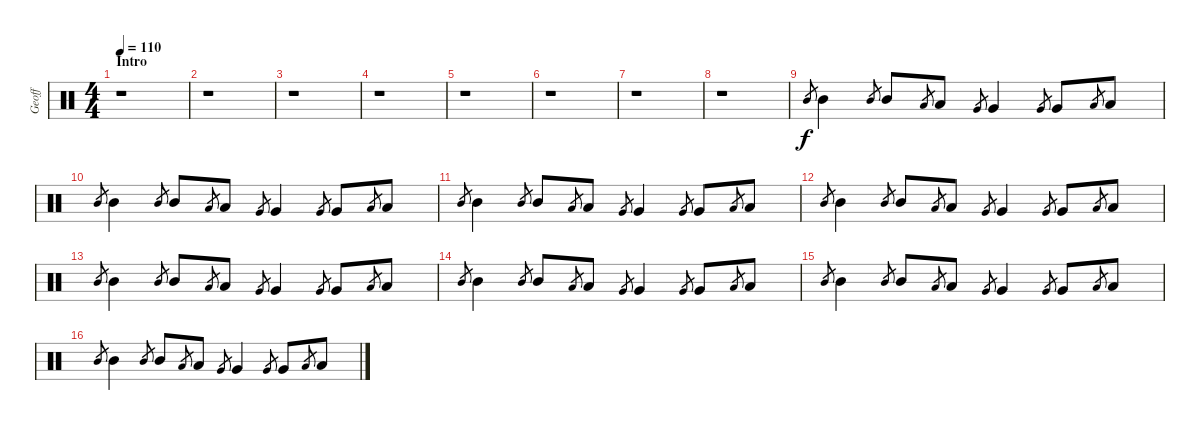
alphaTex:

\track ("Geoff" "Geoff") {instrument percussion}
\staff {score}
\articulation defaults
\ts (4 4)
\section ("" "Intro")
\tempo 110
\clef neutral
\ks c
r.1{dy f} |
r.1 |
r.1 |
r.1 |
r.1 |
r.1 |
r.1 |
r.1 |
"Mid Tom (hit)".8{gr} "Mid Tom (hit)".4 "Mid Tom (hit)".8{gr} "Mid Tom (hit)".8 "Low Tom (hit)".8{gr} "Low Tom (hit)".8 "Very Low Tom (hit)".8{gr} "Very Low Tom (hit)".4 "Very Low Tom (hit)".8{gr} "Very Low Tom (hit)".8 "Low Tom (hit)".8{gr} "Low Tom (hit)".8 |
"Mid Tom (hit)".8{gr} "Mid Tom (hit)".4 "Mid Tom (hit)".8{gr} "Mid Tom (hit)".8 "Low Tom (hit)".8{gr} "Low Tom (hit)".8 "Very Low Tom (hit)".8{gr} "Very Low Tom (hit)".4 "Very Low Tom (hit)".8{gr} "Very Low Tom (hit)".8 "Low Tom (hit)".8{gr} "Low Tom (hit)".8 |
"Mid Tom (hit)".8{gr} "Mid Tom (hit)".4 "Mid Tom (hit)".8{gr} "Mid Tom (hit)".8 "Low Tom (hit)".8{gr} "Low Tom (hit)".8 "Very Low Tom (hit)".8{gr} "Very Low Tom (hit)".4 "Very Low Tom (hit)".8{gr} "Very Low Tom (hit)".8 "Low Tom (hit)".8{gr} "Low Tom (hit)".8 |
"Mid Tom (hit)".8{gr} "Mid Tom (hit)".4 "Mid Tom (hit)".8{gr} "Mid Tom (hit)".8 "Low Tom (hit)".8{gr} "Low Tom (hit)".8 "Very Low Tom (hit)".8{gr} "Very Low Tom (hit)".4 "Very Low Tom (hit)".8{gr} "Very Low Tom (hit)".8 "Low Tom (hit)".8{gr} "Low Tom (hit)".8 |
"Mid Tom (hit)".8{gr} "Mid Tom (hit)".4 "Mid Tom (hit)".8{gr} "Mid Tom (hit)".8 "Low Tom (hit)".8{gr} "Low Tom (hit)".8 "Very Low Tom (hit)".8{gr} "Very Low Tom (hit)".4 "Very Low Tom (hit)".8{gr} "Very Low Tom (hit)".8 "Low Tom (hit)".8{gr} "Low Tom (hit)".8 |
"Mid Tom (hit)".8{gr} "Mid Tom (hit)".4 "Mid Tom (hit)".8{gr} "Mid Tom (hit)".8 "Low Tom (hit)".8{gr} "Low Tom (hit)".8 "Very Low Tom (hit)".8{gr} "Very Low Tom (hit)".4 "Very Low Tom (hit)".8{gr} "Very Low Tom (hit)".8 "Low Tom (hit)".8{gr} "Low Tom (hit)".8 |
"Mid Tom (hit)".8{gr} "Mid Tom (hit)".4 "Mid Tom (hit)".8{gr} "Mid Tom (hit)".8 "Low Tom (hit)".8{gr} "Low Tom (hit)".8 "Very Low Tom (hit)".8{gr} "Very Low Tom (hit)".4 "Very Low Tom (hit)".8{gr} "Very Low Tom (hit)".8 "Low Tom (hit)".8{gr} "Low Tom (hit)".8 |
"Mid Tom (hit)".8{gr} "Mid Tom (hit)".4 "Mid Tom (hit)".8{gr} "Mid Tom (hit)".8 "Low Tom (hit)".8{gr} "Low Tom (hit)".8 "Very Low Tom (hit)".8{gr} "Very Low Tom (hit)".4 "Very Low Tom (hit)".8{gr} "Very Low Tom (hit)".8 "Low Tom (hit)".8{gr} "Low Tom (hit)".8
